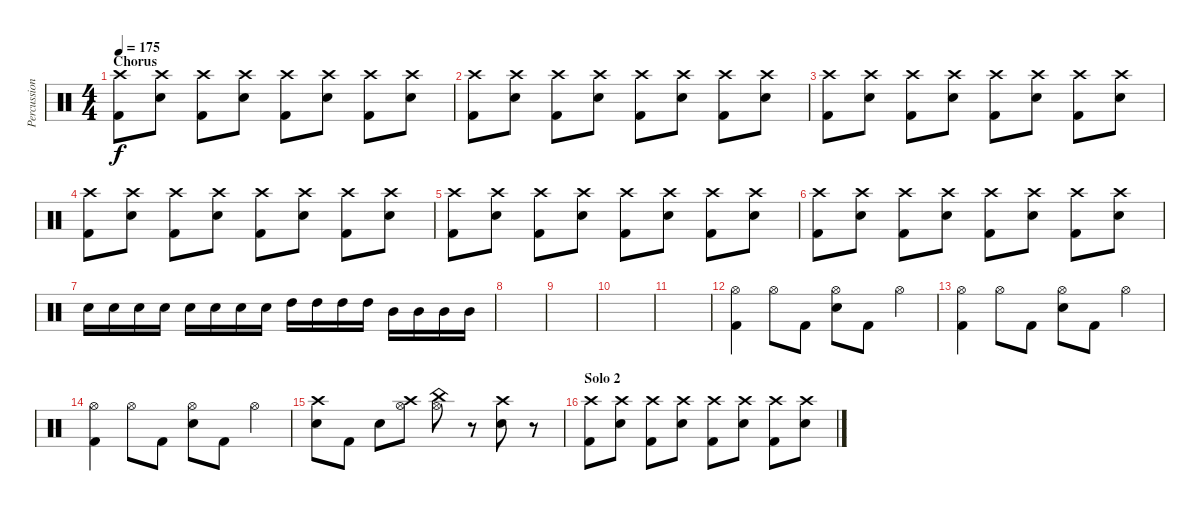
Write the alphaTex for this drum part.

\track ("Percussion" "Percussion") {instrument percussion}
\staff {score}
\articulation defaults
\ts (4 4)
\section ("" "Chorus")
\tempo 175
\clef neutral
\ks c
("Crash high (hit)" "Kick (hit) 2").8{dy f} ("Crash high (hit)" "Snare (hit) 2").8 ("Crash high (hit)" "Kick (hit) 2").8 ("Crash high (hit)" "Snare (hit) 2").8 ("Crash high (hit)" "Kick (hit) 2").8 ("Crash high (hit)" "Snare (hit) 2").8 ("Crash high (hit)" "Kick (hit) 2").8 ("Crash high (hit)" "Snare (hit) 2").8 |
("Crash high (hit)" "Kick (hit) 2").8 ("Crash high (hit)" "Snare (hit) 2").8 ("Crash high (hit)" "Kick (hit) 2").8 ("Crash high (hit)" "Snare (hit) 2").8 ("Crash high (hit)" "Kick (hit) 2").8 ("Crash high (hit)" "Snare (hit) 2").8 ("Crash high (hit)" "Kick (hit) 2").8 ("Crash high (hit)" "Snare (hit) 2").8 |
("Crash high (hit)" "Kick (hit) 2").8 ("Crash high (hit)" "Snare (hit) 2").8 ("Crash high (hit)" "Kick (hit) 2").8 ("Crash high (hit)" "Snare (hit) 2").8 ("Crash high (hit)" "Kick (hit) 2").8 ("Crash high (hit)" "Snare (hit) 2").8 ("Crash high (hit)" "Kick (hit) 2").8 ("Crash high (hit)" "Snare (hit) 2").8 |
("Crash high (hit)" "Kick (hit) 2").8 ("Crash high (hit)" "Snare (hit) 2").8 ("Crash high (hit)" "Kick (hit) 2").8 ("Crash high (hit)" "Snare (hit) 2").8 ("Crash high (hit)" "Kick (hit) 2").8 ("Crash high (hit)" "Snare (hit) 2").8 ("Crash high (hit)" "Kick (hit) 2").8 ("Crash high (hit)" "Snare (hit) 2").8 |
("Crash high (hit)" "Kick (hit) 2").8 ("Crash high (hit)" "Snare (hit) 2").8 ("Crash high (hit)" "Kick (hit) 2").8 ("Crash high (hit)" "Snare (hit) 2").8 ("Crash high (hit)" "Kick (hit) 2").8 ("Crash high (hit)" "Snare (hit) 2").8 ("Crash high (hit)" "Kick (hit) 2").8 ("Crash high (hit)" "Snare (hit) 2").8 |
("Crash high (hit)" "Kick (hit) 2").8 ("Crash high (hit)" "Snare (hit) 2").8 ("Crash high (hit)" "Kick (hit) 2").8 ("Crash high (hit)" "Snare (hit) 2").8 ("Crash high (hit)" "Kick (hit) 2").8 ("Crash high (hit)" "Snare (hit) 2").8 ("Crash high (hit)" "Kick (hit) 2").8 ("Crash high (hit)" "Snare (hit) 2").8 |
"Snare (hit) 2".16 "Snare (hit) 2".16 "Snare (hit) 2".16 "Snare (hit) 2".16 "Snare (hit) 2".16 "Snare (hit) 2".16 "Snare (hit) 2".16 "Snare (hit) 2".16 "High Tom (hit)".16 "High Tom (hit)".16 "High Tom (hit)".16 "High Tom (hit)".16 "Mid Tom (hit)".16 "Mid Tom (hit)".16 "Mid Tom (hit)".16 "Mid Tom (hit)".16 |
|
|
|
|
("Hi-Hat (open)" "Kick (hit) 2").4 "Hi-Hat (open)".8 "Kick (hit) 2".8 ("Hi-Hat (open)" "Snare (hit) 2").8 "Kick (hit) 2".8 "Hi-Hat (open)".4 |
("Hi-Hat (open)" "Kick (hit) 2").4 "Hi-Hat (open)".8 "Kick (hit) 2".8 ("Hi-Hat (open)" "Snare (hit) 2").8 "Kick (hit) 2".8 "Hi-Hat (open)".4 |
("Hi-Hat (open)" "Kick (hit) 2").4 "Hi-Hat (open)".8 "Kick (hit) 2".8 ("Hi-Hat (open)" "Snare (hit) 2").8 "Kick (hit) 2".8 "Hi-Hat (open)".4 |
("Crash high (hit)" "Snare (hit) 2").8 "Kick (hit) 2".8 "Snare (hit) 2".8 ("Crash high (hit)" "Hi-Hat (open)").8 ("China (hit)" "Hi-Hat (open)").8 r.8 ("Crash high (hit)" "Snare (hit) 2").8 r.8 |
\section ("" "Solo 2")
("Crash high (hit)" "Kick (hit) 2").8 ("Crash high (hit)" "Snare (hit) 2").8 ("Crash high (hit)" "Kick (hit) 2").8 ("Crash high (hit)" "Snare (hit) 2").8 ("Crash high (hit)" "Kick (hit) 2").8 ("Crash high (hit)" "Snare (hit) 2").8 ("Crash high (hit)" "Kick (hit) 2").8 ("Crash high (hit)" "Snare (hit) 2").8
